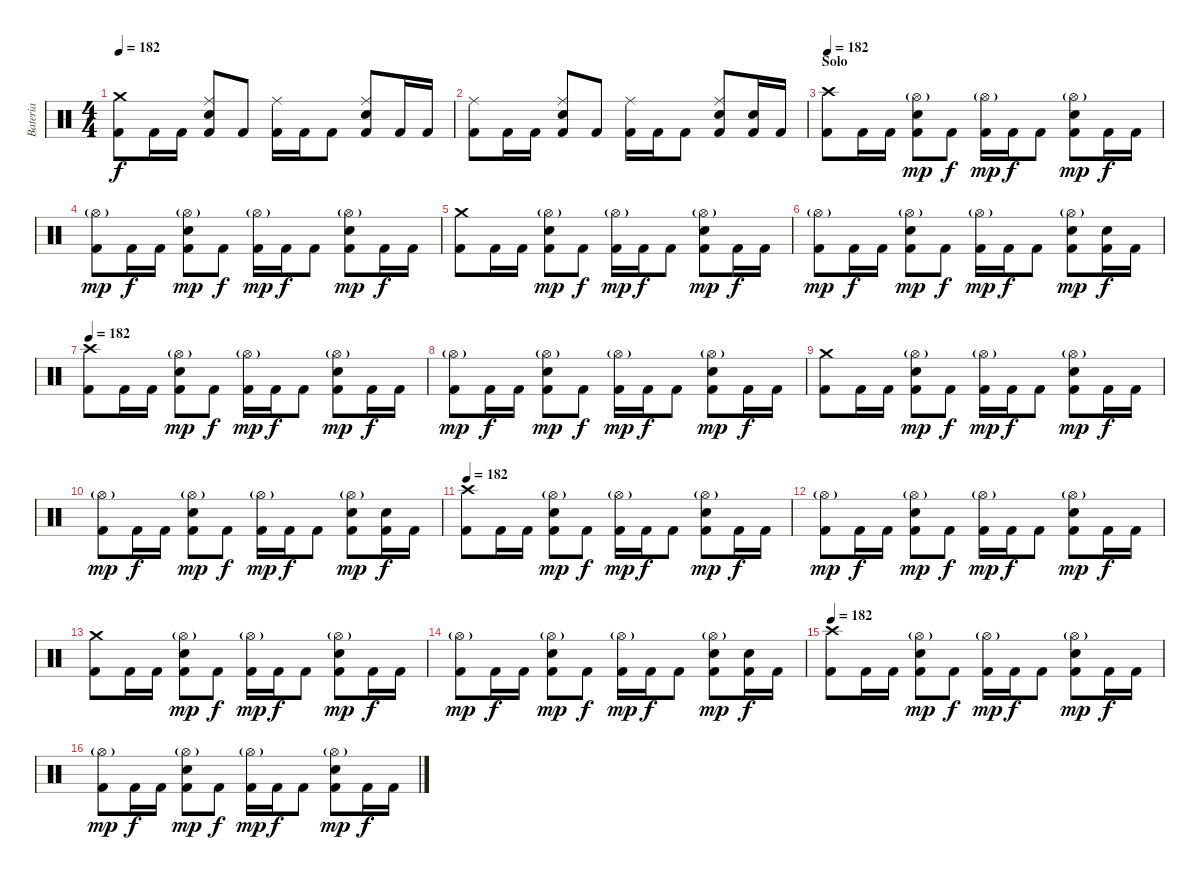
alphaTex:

\track ("Bateria" "Bateria") {instrument percussion}
\staff {score}
\articulation defaults
\ts (4 4)
\tempo 182
\clef neutral
\ks c
("Crash medium (hit)" "Kick (hit) 2").8{dy f} "Kick (hit) 2".16 "Kick (hit) 2".16 ("Ride (middle)" "Snare (hit) 2" "Kick (hit) 2").8 "Kick (hit) 2".8 ("Ride (middle)" "Kick (hit) 2").16 "Kick (hit) 2".16 "Kick (hit) 2".8 ("Ride (middle)" "Snare (hit) 2" "Kick (hit) 2").8 "Kick (hit) 2".16 "Kick (hit) 2".16 |
("Ride (middle)" "Kick (hit) 2").8 "Kick (hit) 2".16 "Kick (hit) 2".16 ("Ride (middle)" "Snare (hit) 2" "Kick (hit) 2").8 "Kick (hit) 2".8 ("Ride (middle)" "Kick (hit) 2").16 "Kick (hit) 2".16 "Kick (hit) 2".8 ("Ride (middle)" "Snare (hit) 2" "Kick (hit) 2").8 ("Snare (hit) 2" "Kick (hit) 2").16 "Kick (hit) 2".16 |
\section ("" "Solo")
\tempo 182
("Crash high (hit)" "Kick (hit) 2").8 "Kick (hit) 2".16 "Kick (hit) 2".16 ("Hi-Hat (open)"{g} "Snare (hit) 2" "Kick (hit) 2").8{dy mp} "Kick (hit) 2".8{dy f} ("Hi-Hat (open)"{g} "Kick (hit) 2").16{dy mp} "Kick (hit) 2".16{dy f} "Kick (hit) 2".8 ("Hi-Hat (open)"{g} "Snare (hit) 2" "Kick (hit) 2").8{dy mp} "Kick (hit) 2".16{dy f} "Kick (hit) 2".16 |
("Hi-Hat (open)"{g} "Kick (hit) 2").8{dy mp} "Kick (hit) 2".16{dy f} "Kick (hit) 2".16 ("Hi-Hat (open)"{g} "Snare (hit) 2" "Kick (hit) 2").8{dy mp} "Kick (hit) 2".8{dy f} ("Hi-Hat (open)"{g} "Kick (hit) 2").16{dy mp} "Kick (hit) 2".16{dy f} "Kick (hit) 2".8 ("Hi-Hat (open)"{g} "Snare (hit) 2" "Kick (hit) 2").8{dy mp} "Kick (hit) 2".16{dy f} "Kick (hit) 2".16 |
("Crash medium (hit)" "Kick (hit) 2").8 "Kick (hit) 2".16 "Kick (hit) 2".16 ("Hi-Hat (open)"{g} "Snare (hit) 2" "Kick (hit) 2").8{dy mp} "Kick (hit) 2".8{dy f} ("Hi-Hat (open)"{g} "Kick (hit) 2").16{dy mp} "Kick (hit) 2".16{dy f} "Kick (hit) 2".8 ("Hi-Hat (open)"{g} "Snare (hit) 2" "Kick (hit) 2").8{dy mp} "Kick (hit) 2".16{dy f} "Kick (hit) 2".16 |
("Hi-Hat (open)"{g} "Kick (hit) 2").8{dy mp} "Kick (hit) 2".16{dy f} "Kick (hit) 2".16 ("Hi-Hat (open)"{g} "Snare (hit) 2" "Kick (hit) 2").8{dy mp} "Kick (hit) 2".8{dy f} ("Hi-Hat (open)"{g} "Kick (hit) 2").16{dy mp} "Kick (hit) 2".16{dy f} "Kick (hit) 2".8 ("Hi-Hat (open)"{g} "Snare (hit) 2" "Kick (hit) 2").8{dy mp} ("Snare (hit) 2" "Kick (hit) 2").16{dy f} "Kick (hit) 2".16 |
\tempo 182
("Crash high (hit)" "Kick (hit) 2").8 "Kick (hit) 2".16 "Kick (hit) 2".16 ("Hi-Hat (open)"{g} "Snare (hit) 2" "Kick (hit) 2").8{dy mp} "Kick (hit) 2".8{dy f} ("Hi-Hat (open)"{g} "Kick (hit) 2").16{dy mp} "Kick (hit) 2".16{dy f} "Kick (hit) 2".8 ("Hi-Hat (open)"{g} "Snare (hit) 2" "Kick (hit) 2").8{dy mp} "Kick (hit) 2".16{dy f} "Kick (hit) 2".16 |
("Hi-Hat (open)"{g} "Kick (hit) 2").8{dy mp} "Kick (hit) 2".16{dy f} "Kick (hit) 2".16 ("Hi-Hat (open)"{g} "Snare (hit) 2" "Kick (hit) 2").8{dy mp} "Kick (hit) 2".8{dy f} ("Hi-Hat (open)"{g} "Kick (hit) 2").16{dy mp} "Kick (hit) 2".16{dy f} "Kick (hit) 2".8 ("Hi-Hat (open)"{g} "Snare (hit) 2" "Kick (hit) 2").8{dy mp} "Kick (hit) 2".16{dy f} "Kick (hit) 2".16 |
("Crash medium (hit)" "Kick (hit) 2").8 "Kick (hit) 2".16 "Kick (hit) 2".16 ("Hi-Hat (open)"{g} "Snare (hit) 2" "Kick (hit) 2").8{dy mp} "Kick (hit) 2".8{dy f} ("Hi-Hat (open)"{g} "Kick (hit) 2").16{dy mp} "Kick (hit) 2".16{dy f} "Kick (hit) 2".8 ("Hi-Hat (open)"{g} "Snare (hit) 2" "Kick (hit) 2").8{dy mp} "Kick (hit) 2".16{dy f} "Kick (hit) 2".16 |
("Hi-Hat (open)"{g} "Kick (hit) 2").8{dy mp} "Kick (hit) 2".16{dy f} "Kick (hit) 2".16 ("Hi-Hat (open)"{g} "Snare (hit) 2" "Kick (hit) 2").8{dy mp} "Kick (hit) 2".8{dy f} ("Hi-Hat (open)"{g} "Kick (hit) 2").16{dy mp} "Kick (hit) 2".16{dy f} "Kick (hit) 2".8 ("Hi-Hat (open)"{g} "Snare (hit) 2" "Kick (hit) 2").8{dy mp} ("Snare (hit) 2" "Kick (hit) 2").16{dy f} "Kick (hit) 2".16 |
\tempo 182
("Crash high (hit)" "Kick (hit) 2").8 "Kick (hit) 2".16 "Kick (hit) 2".16 ("Hi-Hat (open)"{g} "Snare (hit) 2" "Kick (hit) 2").8{dy mp} "Kick (hit) 2".8{dy f} ("Hi-Hat (open)"{g} "Kick (hit) 2").16{dy mp} "Kick (hit) 2".16{dy f} "Kick (hit) 2".8 ("Hi-Hat (open)"{g} "Snare (hit) 2" "Kick (hit) 2").8{dy mp} "Kick (hit) 2".16{dy f} "Kick (hit) 2".16 |
("Hi-Hat (open)"{g} "Kick (hit) 2").8{dy mp} "Kick (hit) 2".16{dy f} "Kick (hit) 2".16 ("Hi-Hat (open)"{g} "Snare (hit) 2" "Kick (hit) 2").8{dy mp} "Kick (hit) 2".8{dy f} ("Hi-Hat (open)"{g} "Kick (hit) 2").16{dy mp} "Kick (hit) 2".16{dy f} "Kick (hit) 2".8 ("Hi-Hat (open)"{g} "Snare (hit) 2" "Kick (hit) 2").8{dy mp} "Kick (hit) 2".16{dy f} "Kick (hit) 2".16 |
("Crash medium (hit)" "Kick (hit) 2").8 "Kick (hit) 2".16 "Kick (hit) 2".16 ("Hi-Hat (open)"{g} "Snare (hit) 2" "Kick (hit) 2").8{dy mp} "Kick (hit) 2".8{dy f} ("Hi-Hat (open)"{g} "Kick (hit) 2").16{dy mp} "Kick (hit) 2".16{dy f} "Kick (hit) 2".8 ("Hi-Hat (open)"{g} "Snare (hit) 2" "Kick (hit) 2").8{dy mp} "Kick (hit) 2".16{dy f} "Kick (hit) 2".16 |
("Hi-Hat (open)"{g} "Kick (hit) 2").8{dy mp} "Kick (hit) 2".16{dy f} "Kick (hit) 2".16 ("Hi-Hat (open)"{g} "Snare (hit) 2" "Kick (hit) 2").8{dy mp} "Kick (hit) 2".8{dy f} ("Hi-Hat (open)"{g} "Kick (hit) 2").16{dy mp} "Kick (hit) 2".16{dy f} "Kick (hit) 2".8 ("Hi-Hat (open)"{g} "Snare (hit) 2" "Kick (hit) 2").8{dy mp} ("Snare (hit) 2" "Kick (hit) 2").16{dy f} "Kick (hit) 2".16 |
\tempo 182
("Crash high (hit)" "Kick (hit) 2").8 "Kick (hit) 2".16 "Kick (hit) 2".16 ("Hi-Hat (open)"{g} "Snare (hit) 2" "Kick (hit) 2").8{dy mp} "Kick (hit) 2".8{dy f} ("Hi-Hat (open)"{g} "Kick (hit) 2").16{dy mp} "Kick (hit) 2".16{dy f} "Kick (hit) 2".8 ("Hi-Hat (open)"{g} "Snare (hit) 2" "Kick (hit) 2").8{dy mp} "Kick (hit) 2".16{dy f} "Kick (hit) 2".16 |
("Hi-Hat (open)"{g} "Kick (hit) 2").8{dy mp} "Kick (hit) 2".16{dy f} "Kick (hit) 2".16 ("Hi-Hat (open)"{g} "Snare (hit) 2" "Kick (hit) 2").8{dy mp} "Kick (hit) 2".8{dy f} ("Hi-Hat (open)"{g} "Kick (hit) 2").16{dy mp} "Kick (hit) 2".16{dy f} "Kick (hit) 2".8 ("Hi-Hat (open)"{g} "Snare (hit) 2" "Kick (hit) 2").8{dy mp} "Kick (hit) 2".16{dy f} "Kick (hit) 2".16
